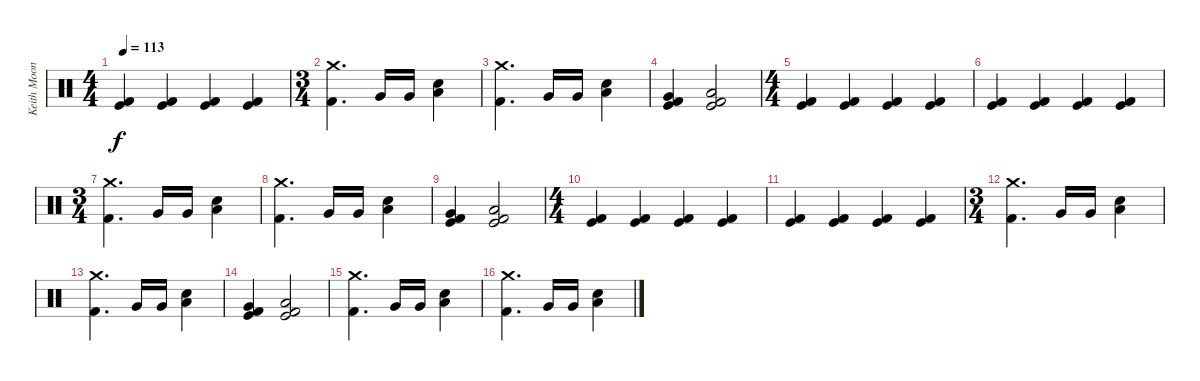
\track ("Keith Moon" "Keith Moon") {instrument percussion}
\staff {score}
\articulation defaults
\ts (4 4)
\tempo 113
\clef neutral
\ks c
("Kick (hit) 2" "Kick (hit)").4{dy f} ("Kick (hit) 2" "Kick (hit)").4 ("Kick (hit) 2" "Kick (hit)").4 ("Kick (hit) 2" "Kick (hit)").4 |
\ts (3 4)
("Kick (hit) 2" "Crash medium (hit)").4{d} "Very Low Tom (hit)".16 "Very Low Tom (hit)".16 ("Low Tom (hit)" "Snare (hit) 2").4 |
("Kick (hit) 2" "Crash medium (hit)").4{d} "Very Low Tom (hit)".16 "Very Low Tom (hit)".16 ("Low Tom (hit)" "Snare (hit) 2").4 |
("Kick (hit) 2" "Kick (hit)" "Very Low Tom (hit)").4 ("Kick (hit) 2" "Kick (hit)" "Low Tom (hit)").2 |
\ts (4 4)
("Kick (hit) 2" "Kick (hit)").4 ("Kick (hit) 2" "Kick (hit)").4 ("Kick (hit) 2" "Kick (hit)").4 ("Kick (hit) 2" "Kick (hit)").4 |
("Kick (hit) 2" "Kick (hit)").4 ("Kick (hit) 2" "Kick (hit)").4 ("Kick (hit) 2" "Kick (hit)").4 ("Kick (hit) 2" "Kick (hit)").4 |
\ts (3 4)
("Kick (hit) 2" "Crash medium (hit)").4{d} "Very Low Tom (hit)".16 "Very Low Tom (hit)".16 ("Low Tom (hit)" "Snare (hit) 2").4 |
("Kick (hit) 2" "Crash medium (hit)").4{d} "Very Low Tom (hit)".16 "Very Low Tom (hit)".16 ("Low Tom (hit)" "Snare (hit) 2").4 |
("Kick (hit) 2" "Kick (hit)" "Very Low Tom (hit)").4 ("Kick (hit) 2" "Kick (hit)" "Low Tom (hit)").2 |
\ts (4 4)
("Kick (hit) 2" "Kick (hit)").4 ("Kick (hit) 2" "Kick (hit)").4 ("Kick (hit) 2" "Kick (hit)").4 ("Kick (hit) 2" "Kick (hit)").4 |
("Kick (hit) 2" "Kick (hit)").4 ("Kick (hit) 2" "Kick (hit)").4 ("Kick (hit) 2" "Kick (hit)").4 ("Kick (hit) 2" "Kick (hit)").4 |
\ts (3 4)
("Kick (hit) 2" "Crash medium (hit)").4{d} "Very Low Tom (hit)".16 "Very Low Tom (hit)".16 ("Low Tom (hit)" "Snare (hit) 2").4 |
("Kick (hit) 2" "Crash medium (hit)").4{d} "Very Low Tom (hit)".16 "Very Low Tom (hit)".16 ("Low Tom (hit)" "Snare (hit) 2").4 |
("Kick (hit) 2" "Kick (hit)" "Very Low Tom (hit)").4 ("Kick (hit) 2" "Kick (hit)" "Low Tom (hit)").2 |
("Kick (hit) 2" "Crash medium (hit)").4{d} "Very Low Tom (hit)".16 "Very Low Tom (hit)".16 ("Low Tom (hit)" "Snare (hit) 2").4 |
("Kick (hit) 2" "Crash medium (hit)").4{d} "Very Low Tom (hit)".16 "Very Low Tom (hit)".16 ("Low Tom (hit)" "Snare (hit) 2").4
